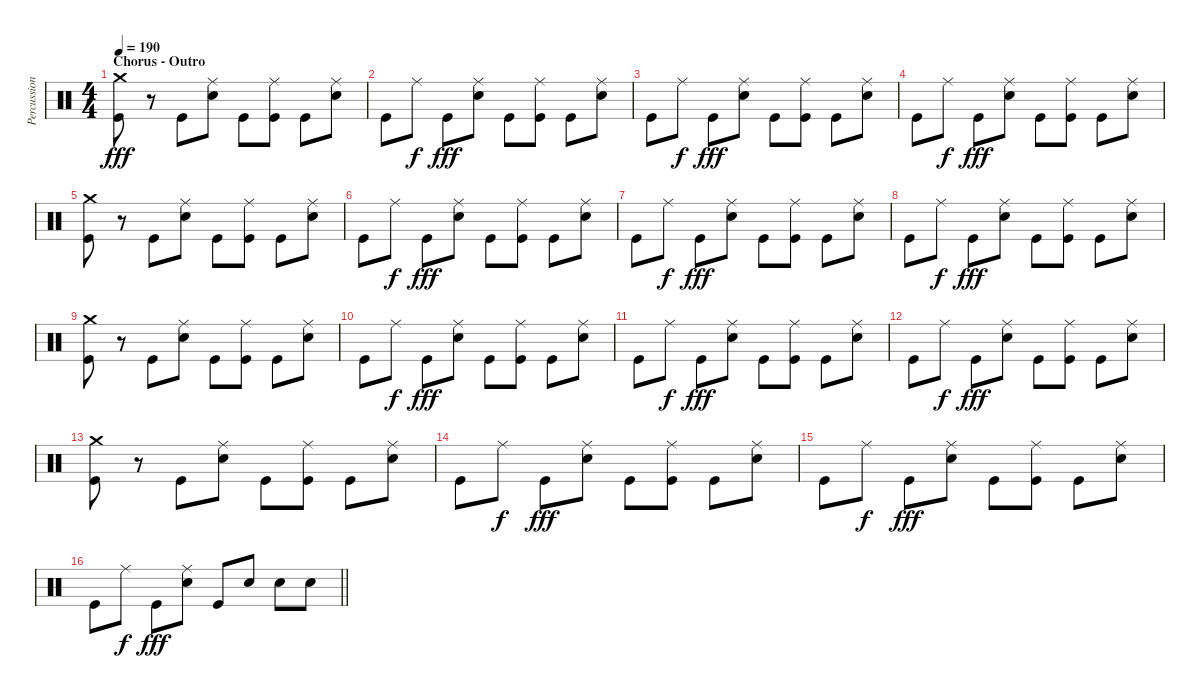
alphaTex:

\track ("Percussioni" "Percussion") {instrument percussion}
\staff {score}
\articulation defaults
\ts (4 4)
\section ("" "Chorus - Outro")
\tempo 190
\clef neutral
\ks c
("Crash medium (hit)" "Kick (hit)").8{dy fff} r.8 "Kick (hit)".8 ("Ride (middle)" "Snare (hit) 2").8 "Kick (hit)".8 ("Ride (middle)" "Kick (hit)").8 "Kick (hit)".8 ("Ride (middle)" "Snare (hit) 2").8 |
"Kick (hit)".8 "Ride (middle)".8{dy f} "Kick (hit)".8{dy fff} ("Ride (middle)" "Snare (hit) 2").8 "Kick (hit)".8 ("Ride (middle)" "Kick (hit)").8 "Kick (hit)".8 ("Ride (middle)" "Snare (hit) 2").8 |
"Kick (hit)".8 "Ride (middle)".8{dy f} "Kick (hit)".8{dy fff} ("Ride (middle)" "Snare (hit) 2").8 "Kick (hit)".8 ("Ride (middle)" "Kick (hit)").8 "Kick (hit)".8 ("Ride (middle)" "Snare (hit) 2").8 |
"Kick (hit)".8 "Ride (middle)".8{dy f} "Kick (hit)".8{dy fff} ("Ride (middle)" "Snare (hit) 2").8 "Kick (hit)".8 ("Ride (middle)" "Kick (hit)").8 "Kick (hit)".8 ("Ride (middle)" "Snare (hit) 2").8 |
("Crash medium (hit)" "Kick (hit)").8 r.8 "Kick (hit)".8 ("Ride (middle)" "Snare (hit) 2").8 "Kick (hit)".8 ("Ride (middle)" "Kick (hit)").8 "Kick (hit)".8 ("Ride (middle)" "Snare (hit) 2").8 |
"Kick (hit)".8 "Ride (middle)".8{dy f} "Kick (hit)".8{dy fff} ("Ride (middle)" "Snare (hit) 2").8 "Kick (hit)".8 ("Ride (middle)" "Kick (hit)").8 "Kick (hit)".8 ("Ride (middle)" "Snare (hit) 2").8 |
"Kick (hit)".8 "Ride (middle)".8{dy f} "Kick (hit)".8{dy fff} ("Ride (middle)" "Snare (hit) 2").8 "Kick (hit)".8 ("Ride (middle)" "Kick (hit)").8 "Kick (hit)".8 ("Ride (middle)" "Snare (hit) 2").8 |
"Kick (hit)".8 "Ride (middle)".8{dy f} "Kick (hit)".8{dy fff} ("Ride (middle)" "Snare (hit) 2").8 "Kick (hit)".8 ("Ride (middle)" "Kick (hit)").8 "Kick (hit)".8 ("Ride (middle)" "Snare (hit) 2").8 |
("Crash medium (hit)" "Kick (hit)").8 r.8 "Kick (hit)".8 ("Ride (middle)" "Snare (hit) 2").8 "Kick (hit)".8 ("Ride (middle)" "Kick (hit)").8 "Kick (hit)".8 ("Ride (middle)" "Snare (hit) 2").8 |
"Kick (hit)".8 "Ride (middle)".8{dy f} "Kick (hit)".8{dy fff} ("Ride (middle)" "Snare (hit) 2").8 "Kick (hit)".8 ("Ride (middle)" "Kick (hit)").8 "Kick (hit)".8 ("Ride (middle)" "Snare (hit) 2").8 |
"Kick (hit)".8 "Ride (middle)".8{dy f} "Kick (hit)".8{dy fff} ("Ride (middle)" "Snare (hit) 2").8 "Kick (hit)".8 ("Ride (middle)" "Kick (hit)").8 "Kick (hit)".8 ("Ride (middle)" "Snare (hit) 2").8 |
"Kick (hit)".8 "Ride (middle)".8{dy f} "Kick (hit)".8{dy fff} ("Ride (middle)" "Snare (hit) 2").8 "Kick (hit)".8 ("Ride (middle)" "Kick (hit)").8 "Kick (hit)".8 ("Ride (middle)" "Snare (hit) 2").8 |
("Crash medium (hit)" "Kick (hit)").8 r.8 "Kick (hit)".8 ("Ride (middle)" "Snare (hit) 2").8 "Kick (hit)".8 ("Ride (middle)" "Kick (hit)").8 "Kick (hit)".8 ("Ride (middle)" "Snare (hit) 2").8 |
"Kick (hit)".8 "Ride (middle)".8{dy f} "Kick (hit)".8{dy fff} ("Ride (middle)" "Snare (hit) 2").8 "Kick (hit)".8 ("Ride (middle)" "Kick (hit)").8 "Kick (hit)".8 ("Ride (middle)" "Snare (hit) 2").8 |
"Kick (hit)".8 "Ride (middle)".8{dy f} "Kick (hit)".8{dy fff} ("Ride (middle)" "Snare (hit) 2").8 "Kick (hit)".8 ("Ride (middle)" "Kick (hit)").8 "Kick (hit)".8 ("Ride (middle)" "Snare (hit) 2").8 |
\barLineRight lightlight "Kick (hit)".8 "Ride (middle)".8{dy f} "Kick (hit)".8{dy fff}
("Ride (middle)" "Snare (hit) 2").8 "Kick (hit)".8 "Snare (hit) 2".8 "Snare (hit) 2".8 "Snare (hit) 2".8
